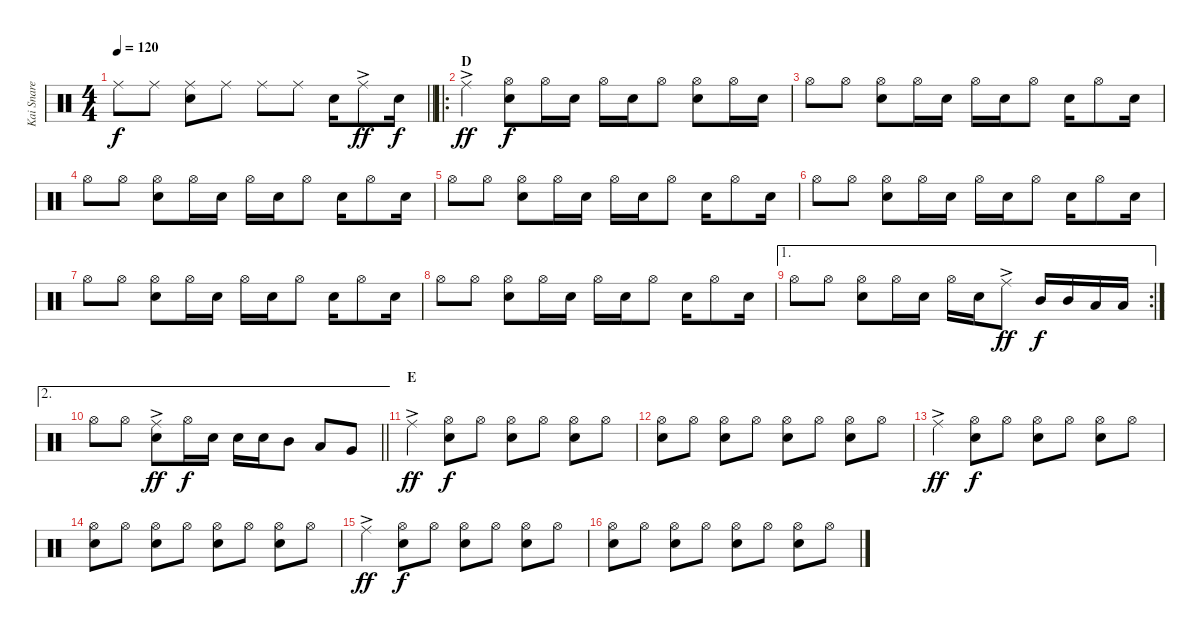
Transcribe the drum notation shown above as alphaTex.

\track ("Kai Snare" "Kai Snare") {instrument percussion}
\staff {score}
\articulation defaults
\ts (4 4)
\tempo 120
\clef neutral
\barLineRight lightlight
\ks c "Ride (middle)".8{dy f} "Ride (middle)".8
("Ride (middle)" "Snare (hit) 2").8 "Ride (middle)".8 "Ride (middle)".8 "Ride (middle)".8 "Snare (hit) 2".16 "Ride (middle)"{ac}.8{dy ff} "Snare (hit) 2".16{dy f} |
\ro
\section ("" "D")
"Ride (middle)"{ac}.4{dy ff} ("Hi-Hat (open)" "Snare (hit) 2").8{dy f} "Hi-Hat (open)".16 "Snare (hit) 2".16 "Hi-Hat (open)".16 "Snare (hit) 2".16 "Hi-Hat (open)".8 ("Hi-Hat (open)" "Snare (hit) 2").8 "Hi-Hat (open)".16 "Snare (hit) 2".16 |
"Hi-Hat (open)".8 "Hi-Hat (open)".8 ("Hi-Hat (open)" "Snare (hit) 2").8 "Hi-Hat (open)".16 "Snare (hit) 2".16 "Hi-Hat (open)".16 "Snare (hit) 2".16 "Hi-Hat (open)".8 "Snare (hit) 2".16 "Hi-Hat (open)".8 "Snare (hit) 2".16 |
"Hi-Hat (open)".8 "Hi-Hat (open)".8 ("Hi-Hat (open)" "Snare (hit) 2").8 "Hi-Hat (open)".16 "Snare (hit) 2".16 "Hi-Hat (open)".16 "Snare (hit) 2".16 "Hi-Hat (open)".8 "Snare (hit) 2".16 "Hi-Hat (open)".8 "Snare (hit) 2".16 |
"Hi-Hat (open)".8 "Hi-Hat (open)".8 ("Hi-Hat (open)" "Snare (hit) 2").8 "Hi-Hat (open)".16 "Snare (hit) 2".16 "Hi-Hat (open)".16 "Snare (hit) 2".16 "Hi-Hat (open)".8 "Snare (hit) 2".16 "Hi-Hat (open)".8 "Snare (hit) 2".16 |
"Hi-Hat (open)".8 "Hi-Hat (open)".8 ("Hi-Hat (open)" "Snare (hit) 2").8 "Hi-Hat (open)".16 "Snare (hit) 2".16 "Hi-Hat (open)".16 "Snare (hit) 2".16 "Hi-Hat (open)".8 "Snare (hit) 2".16 "Hi-Hat (open)".8 "Snare (hit) 2".16 |
"Hi-Hat (open)".8 "Hi-Hat (open)".8 ("Hi-Hat (open)" "Snare (hit) 2").8 "Hi-Hat (open)".16 "Snare (hit) 2".16 "Hi-Hat (open)".16 "Snare (hit) 2".16 "Hi-Hat (open)".8 "Snare (hit) 2".16 "Hi-Hat (open)".8 "Snare (hit) 2".16 |
"Hi-Hat (open)".8 "Hi-Hat (open)".8 ("Hi-Hat (open)" "Snare (hit) 2").8 "Hi-Hat (open)".16 "Snare (hit) 2".16 "Hi-Hat (open)".16 "Snare (hit) 2".16 "Hi-Hat (open)".8 "Snare (hit) 2".16 "Hi-Hat (open)".8 "Snare (hit) 2".16 |
\ae 1
\rc 2 "Hi-Hat (open)".8 "Hi-Hat (open)".8
("Hi-Hat (open)" "Snare (hit) 2").8 "Hi-Hat (open)".16 "Snare (hit) 2".16 "Hi-Hat (open)".16 "Snare (hit) 2".16 "Ride (middle)"{ac}.8{dy ff} "Mid Tom (hit)".16{dy f} "Mid Tom (hit)".16 "Low Tom (hit)".16 "Low Tom (hit)".16 |
\ae 2
\barLineRight lightlight "Hi-Hat (open)".8 "Hi-Hat (open)".8
("Ride (middle)"{ac} "Snare (hit) 2").8{dy ff} "Hi-Hat (open)".16{dy f} "Snare (hit) 2".16 "Snare (hit) 2".16 "Snare (hit) 2".16 "Mid Tom (hit)".8 "Low Tom (hit)".8 "Very Low Tom (hit)".8 |
\section ("" "E")
"Ride (middle)"{ac}.4{dy ff} ("Hi-Hat (open)" "Snare (hit) 2").8{dy f} "Hi-Hat (open)".8 ("Hi-Hat (open)" "Snare (hit) 2").8 "Hi-Hat (open)".8 ("Hi-Hat (open)" "Snare (hit) 2").8 "Hi-Hat (open)".8 |
("Hi-Hat (open)" "Snare (hit) 2").8 "Hi-Hat (open)".8 ("Hi-Hat (open)" "Snare (hit) 2").8 "Hi-Hat (open)".8 ("Hi-Hat (open)" "Snare (hit) 2").8 "Hi-Hat (open)".8 ("Hi-Hat (open)" "Snare (hit) 2").8 "Hi-Hat (open)".8 |
"Ride (middle)"{ac}.4{dy ff} ("Hi-Hat (open)" "Snare (hit) 2").8{dy f} "Hi-Hat (open)".8 ("Hi-Hat (open)" "Snare (hit) 2").8 "Hi-Hat (open)".8 ("Hi-Hat (open)" "Snare (hit) 2").8 "Hi-Hat (open)".8 |
("Hi-Hat (open)" "Snare (hit) 2").8 "Hi-Hat (open)".8 ("Hi-Hat (open)" "Snare (hit) 2").8 "Hi-Hat (open)".8 ("Hi-Hat (open)" "Snare (hit) 2").8 "Hi-Hat (open)".8 ("Hi-Hat (open)" "Snare (hit) 2").8 "Hi-Hat (open)".8 |
"Ride (middle)"{ac}.4{dy ff} ("Hi-Hat (open)" "Snare (hit) 2").8{dy f} "Hi-Hat (open)".8 ("Hi-Hat (open)" "Snare (hit) 2").8 "Hi-Hat (open)".8 ("Hi-Hat (open)" "Snare (hit) 2").8 "Hi-Hat (open)".8 |
("Hi-Hat (open)" "Snare (hit) 2").8 "Hi-Hat (open)".8 ("Hi-Hat (open)" "Snare (hit) 2").8 "Hi-Hat (open)".8 ("Hi-Hat (open)" "Snare (hit) 2").8 "Hi-Hat (open)".8 ("Hi-Hat (open)" "Snare (hit) 2").8 "Hi-Hat (open)".8
